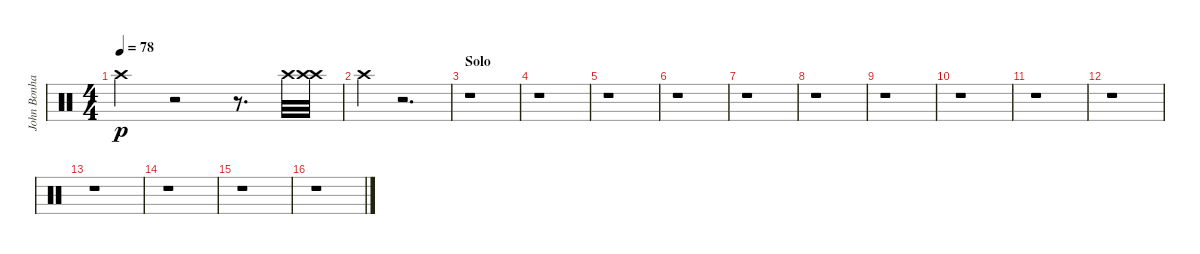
\track ("John Bonham (Drums)" "John Bonha") {instrument percussion}
\staff {score}
\articulation defaults
\ts (4 4)
\tempo 78
\clef neutral
\ks c "Crash high (hit)".4{dy p}
r.2 r.8{d} "Crash high (hit)".32 ("Crash high (hit)" "Crash high (hit)").32 |
"Crash high (hit)".4 r.2{d} |
\section ("" "Solo")
r.1 |
r.1 |
r.1 |
r.1 |
r.1 |
r.1 |
r.1 |
r.1 |
r.1 |
r.1 |
r.1 |
r.1 |
r.1 |
r.1
